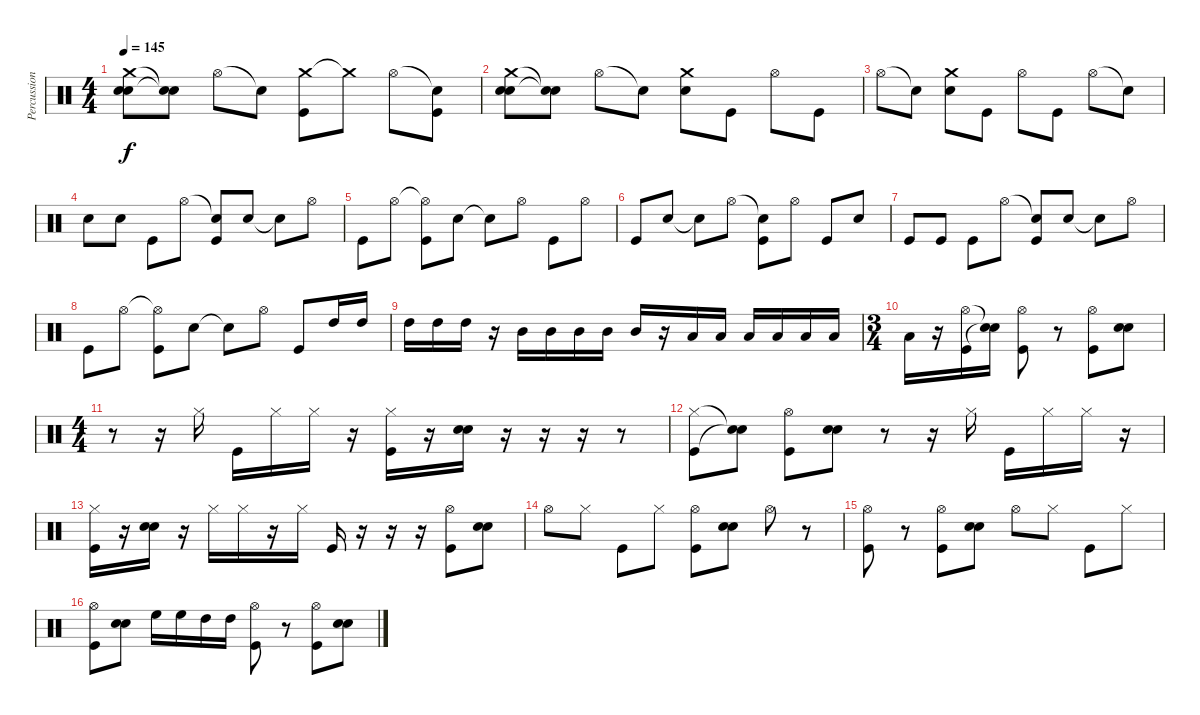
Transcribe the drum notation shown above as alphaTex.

\track ("Percussions" "Percussion") {instrument percussion}
\staff {score}
\articulation defaults
\ts (4 4)
\tempo 145
\clef neutral
\ks c
("Crash medium (hit)" "Electric Snare (hit)" "Electric Snare (hit)").8{dy f} ("Snare (hit)"{t} "Snare (hit)"{t}).8 "Hi-Hat (open)".8 "Snare (hit)"{t}.8 ("Crash medium (hit)" "Kick (hit)").8 "Crash medium (hit)"{t}.8 "Hi-Hat (open)".8 ("Snare (hit)"{t} "Kick (hit)").8 |
("Crash medium (hit)" "Electric Snare (hit)" "Electric Snare (hit)").8 ("Snare (hit)"{t} "Snare (hit)"{t}).8 "Hi-Hat (open)".8 "Snare (hit)"{t}.8 ("Crash medium (hit)" "Electric Snare (hit)").8 "Kick (hit)".8 "Hi-Hat (open)".8 "Kick (hit)".8 |
"Hi-Hat (open)".8 "Snare (hit)"{t}.8 ("Crash medium (hit)" "Electric Snare (hit)").8 "Kick (hit)".8 "Hi-Hat (open)".8 "Kick (hit)".8 "Hi-Hat (open)".8 "Snare (hit)"{t}.8 |
"Electric Snare (hit)".8 "Electric Snare (hit)".8 "Kick (hit)".8 "Hi-Hat (open)".8 ("Snare (hit)"{t} "Kick (hit)").8 "Electric Snare (hit)".8 "Snare (hit)"{t}.8 "Hi-Hat (open)".8 |
"Kick (hit)".8 "Hi-Hat (open)".8 ("Hi-Hat (open)"{t} "Kick (hit)").8 "Electric Snare (hit)".8 "Snare (hit)"{t}.8 "Hi-Hat (open)".8 "Kick (hit)".8 "Hi-Hat (open)".8 |
"Kick (hit)".8 "Electric Snare (hit)".8 "Snare (hit)"{t}.8 "Hi-Hat (open)".8 ("Snare (hit)"{t} "Kick (hit)").8 "Hi-Hat (open)".8 "Kick (hit)".8 "Electric Snare (hit)".8 |
"Kick (hit)".8 "Kick (hit)".8 "Kick (hit)".8 "Hi-Hat (open)".8 ("Snare (hit)"{t} "Kick (hit)").8 "Electric Snare (hit)".8 "Snare (hit)"{t}.8 "Hi-Hat (open)".8 |
"Kick (hit)".8 "Hi-Hat (open)".8 ("Hi-Hat (open)"{t} "Kick (hit)").8 "Electric Snare (hit)".8 "Snare (hit)"{t}.8 "Hi-Hat (open)".8 "Kick (hit)".8 "High Tom (hit)".16{volume 12} "High Tom (hit)".16 |
"High Tom (hit)".16 "High Tom (hit)".16 "High Tom (hit)".16 r.16 "Mid Tom (hit)".16 "Mid Tom (hit)".16 "Mid Tom (hit)".16 "Mid Tom (hit)".16 "Mid Tom (hit)".16 r.16 "Low Tom (hit)".16 "Low Tom (hit)".16 "Low Tom (hit)".16 "Low Tom (hit)".16 "Low Tom (hit)".16 "Low Floor Tom (hit)".16 |
\ts (3 4)
"Low Floor Tom (hit)".16 r.16 ("Hi-Hat (open)" "Kick (hit)").16{volume 16} ("Snare (hit)"{t} "Snare (hit)"{t}).16 ("Hi-Hat (open)" "Kick (hit)").8 r.8 ("Hi-Hat (open)" "Kick (hit)").8 ("Electric Snare (hit)" "Electric Snare (hit)").8 |
\ts (4 4)
r.8 r.16 "Hi-Hat (closed)".16 "Kick (hit)".16 "Hi-Hat (closed)".16 "Hi-Hat (closed)".16 r.16 ("Hi-Hat (closed)" "Kick (hit)").16 r.16 ("Electric Snare (hit)" "Electric Snare (hit)").16 r.16 r.16 r.16 r.8 |
("Hi-Hat (closed)" "Kick (hit)").8 ("Snare (hit)"{t} "Snare (hit)"{t}).8 ("Hi-Hat (open)" "Kick (hit)").8 ("Electric Snare (hit)" "Electric Snare (hit)").8 r.8 r.16 "Hi-Hat (closed)".16 "Kick (hit)".16 "Hi-Hat (closed)".16 "Hi-Hat (closed)".16 r.16 |
("Hi-Hat (closed)" "Kick (hit)").16 r.16 ("Electric Snare (hit)" "Electric Snare (hit)").16 r.16 "Hi-Hat (closed)".16 "Hi-Hat (closed)".16 r.16 "Hi-Hat (closed)".16 "Kick (hit)".16 r.16 r.16 r.16 ("Hi-Hat (open)" "Kick (hit)").8 ("Electric Snare (hit)" "Electric Snare (hit)").8 |
"Hi-Hat (open)".8 "Hi-Hat (closed)".8 "Kick (hit)".8 "Hi-Hat (closed)".8 ("Hi-Hat (open)" "Kick (hit)").8 ("Electric Snare (hit)" "Electric Snare (hit)").8 "Hi-Hat (open)".8 r.8 |
("Hi-Hat (open)" "Kick (hit)").8 r.8 ("Hi-Hat (open)" "Kick (hit)").8 ("Electric Snare (hit)" "Electric Snare (hit)").8 "Hi-Hat (open)".8 "Hi-Hat (closed)".8 "Kick (hit)".8 "Hi-Hat (closed)".8 |
("Hi-Hat (open)" "Kick (hit)").8 ("Electric Snare (hit)" "Electric Snare (hit)").8 "High Floor Tom (hit)".16{volume 12} "High Floor Tom (hit)".16 "High Tom (hit)".16 "High Tom (hit)".16 ("Hi-Hat (open)" "Kick (hit)").8{volume 16} r.8 ("Hi-Hat (open)" "Kick (hit)").8 ("Electric Snare (hit)" "Electric Snare (hit)").8
